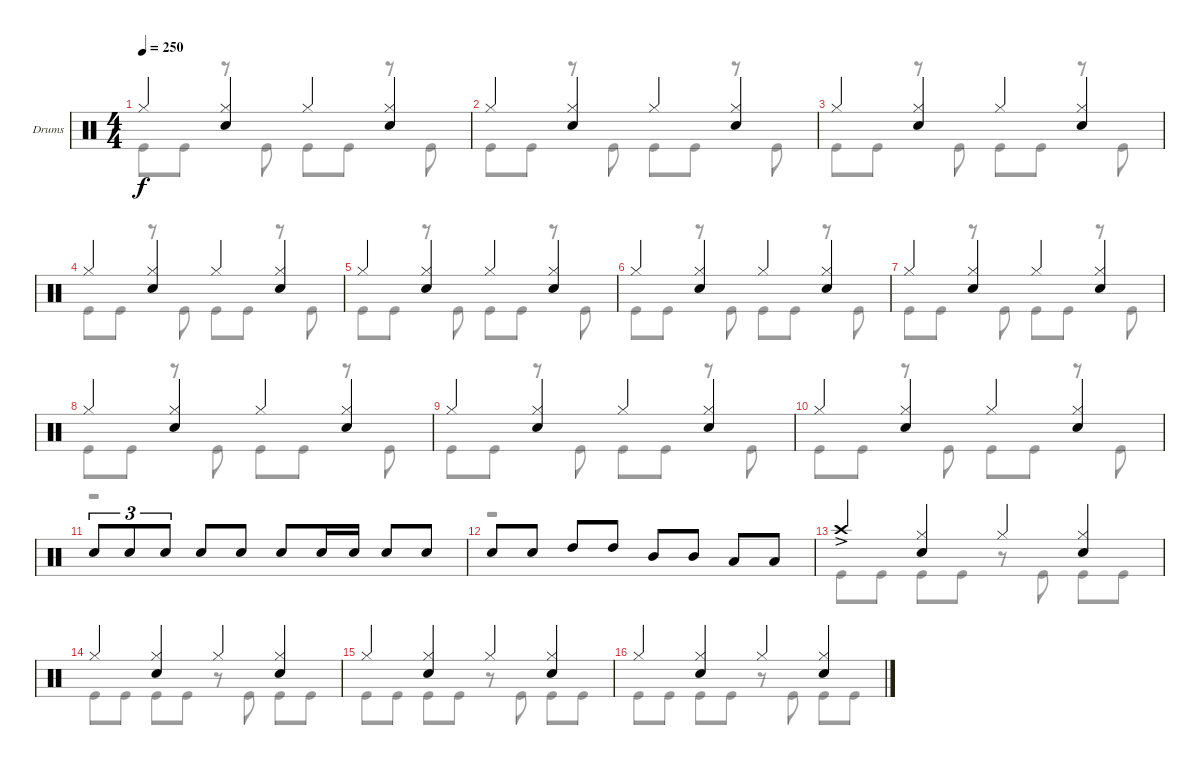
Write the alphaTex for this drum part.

\bracketExtendMode groupsimilarinstruments
\firstSystemTrackNameOrientation horizontal
\otherSystemsTrackNameOrientation horizontal
\track ("Drumkit" "Drums") {instrument percussion}
\staff {score}
\articulation defaults
\voice
\ts (4 4)
\tempo 250
\clef neutral
\ks c "Hi-Hat (closed)".4{dy f}
("Hi-Hat (closed)" "Snare (hit) 2").4 "Hi-Hat (closed)".4 ("Hi-Hat (closed)" "Snare (hit) 2").4 |
"Hi-Hat (closed)".4 ("Hi-Hat (closed)" "Snare (hit) 2").4 "Hi-Hat (closed)".4 ("Hi-Hat (closed)" "Snare (hit) 2").4 |
"Hi-Hat (closed)".4 ("Hi-Hat (closed)" "Snare (hit) 2").4 "Hi-Hat (closed)".4 ("Hi-Hat (closed)" "Snare (hit) 2").4 |
"Hi-Hat (closed)".4 ("Hi-Hat (closed)" "Snare (hit) 2").4 "Hi-Hat (closed)".4 ("Hi-Hat (closed)" "Snare (hit) 2").4 |
"Hi-Hat (closed)".4 ("Hi-Hat (closed)" "Snare (hit) 2").4 "Hi-Hat (closed)".4 ("Hi-Hat (closed)" "Snare (hit) 2").4 |
"Hi-Hat (closed)".4 ("Hi-Hat (closed)" "Snare (hit) 2").4 "Hi-Hat (closed)".4 ("Hi-Hat (closed)" "Snare (hit) 2").4 |
"Hi-Hat (closed)".4 ("Hi-Hat (closed)" "Snare (hit) 2").4 "Hi-Hat (closed)".4 ("Hi-Hat (closed)" "Snare (hit) 2").4 |
"Hi-Hat (closed)".4 ("Hi-Hat (closed)" "Snare (hit) 2").4 "Hi-Hat (closed)".4 ("Hi-Hat (closed)" "Snare (hit) 2").4 |
"Hi-Hat (closed)".4 ("Hi-Hat (closed)" "Snare (hit) 2").4 "Hi-Hat (closed)".4 ("Hi-Hat (closed)" "Snare (hit) 2").4 |
"Hi-Hat (closed)".4 ("Hi-Hat (closed)" "Snare (hit) 2").4 "Hi-Hat (closed)".4 ("Hi-Hat (closed)" "Snare (hit) 2").4 |
"Snare (hit) 2".8{tu (3 2)} "Snare (hit) 2".8{tu (3 2)} "Snare (hit) 2".8{tu (3 2)} "Snare (hit) 2".8 "Snare (hit) 2".8 "Snare (hit) 2".8 "Snare (hit) 2".16 "Snare (hit) 2".16 "Snare (hit) 2".8 "Snare (hit) 2".8 |
"Snare (hit) 2".8 "Snare (hit) 2".8 "High Tom (hit)".8 "High Tom (hit)".8 "Mid Tom (hit)".8 "Mid Tom (hit)".8 "Low Tom (hit)".8 "Low Tom (hit)".8 |
"Crash high (hit)"{ac}.4 ("Hi-Hat (closed)" "Snare (hit) 2").4 "Hi-Hat (closed)".4 ("Hi-Hat (closed)" "Snare (hit) 2").4 |
"Hi-Hat (closed)".4 ("Hi-Hat (closed)" "Snare (hit) 2").4 "Hi-Hat (closed)".4 ("Hi-Hat (closed)" "Snare (hit) 2").4 |
"Hi-Hat (closed)".4 ("Hi-Hat (closed)" "Snare (hit) 2").4 "Hi-Hat (closed)".4 ("Hi-Hat (closed)" "Snare (hit) 2").4 |
"Hi-Hat (closed)".4 ("Hi-Hat (closed)" "Snare (hit) 2").4 "Hi-Hat (closed)".4 ("Hi-Hat (closed)" "Snare (hit) 2").4
\voice
\clef neutral
\ottava regular
\simile none
\ks c "Kick (hit)".8{dy f} "Kick (hit)".8
r.8 "Kick (hit)".8 "Kick (hit)".8 "Kick (hit)".8 r.8 "Kick (hit)".8 |
"Kick (hit)".8 "Kick (hit)".8 r.8 "Kick (hit)".8 "Kick (hit)".8 "Kick (hit)".8 r.8 "Kick (hit)".8 |
"Kick (hit)".8 "Kick (hit)".8 r.8 "Kick (hit)".8 "Kick (hit)".8 "Kick (hit)".8 r.8 "Kick (hit)".8 |
"Kick (hit)".8 "Kick (hit)".8 r.8 "Kick (hit)".8 "Kick (hit)".8 "Kick (hit)".8 r.8 "Kick (hit)".8 |
"Kick (hit)".8 "Kick (hit)".8 r.8 "Kick (hit)".8 "Kick (hit)".8 "Kick (hit)".8 r.8 "Kick (hit)".8 |
"Kick (hit)".8 "Kick (hit)".8 r.8 "Kick (hit)".8 "Kick (hit)".8 "Kick (hit)".8 r.8 "Kick (hit)".8 |
"Kick (hit)".8 "Kick (hit)".8 r.8 "Kick (hit)".8 "Kick (hit)".8 "Kick (hit)".8 r.8 "Kick (hit)".8 |
"Kick (hit)".8 "Kick (hit)".8 r.8 "Kick (hit)".8 "Kick (hit)".8 "Kick (hit)".8 r.8 "Kick (hit)".8 |
"Kick (hit)".8 "Kick (hit)".8 r.8 "Kick (hit)".8 "Kick (hit)".8 "Kick (hit)".8 r.8 "Kick (hit)".8 |
"Kick (hit)".8 "Kick (hit)".8 r.8 "Kick (hit)".8 "Kick (hit)".8 "Kick (hit)".8 r.8 "Kick (hit)".8 |
r.1 |
r.1 |
"Kick (hit)".8 "Kick (hit)".8 "Kick (hit)".8 "Kick (hit)".8 r.8 "Kick (hit)".8 "Kick (hit)".8 "Kick (hit)".8 |
"Kick (hit)".8 "Kick (hit)".8 "Kick (hit)".8 "Kick (hit)".8 r.8 "Kick (hit)".8 "Kick (hit)".8 "Kick (hit)".8 |
"Kick (hit)".8 "Kick (hit)".8 "Kick (hit)".8 "Kick (hit)".8 r.8 "Kick (hit)".8 "Kick (hit)".8 "Kick (hit)".8 |
"Kick (hit)".8 "Kick (hit)".8 "Kick (hit)".8 "Kick (hit)".8 r.8 "Kick (hit)".8 "Kick (hit)".8 "Kick (hit)".8
